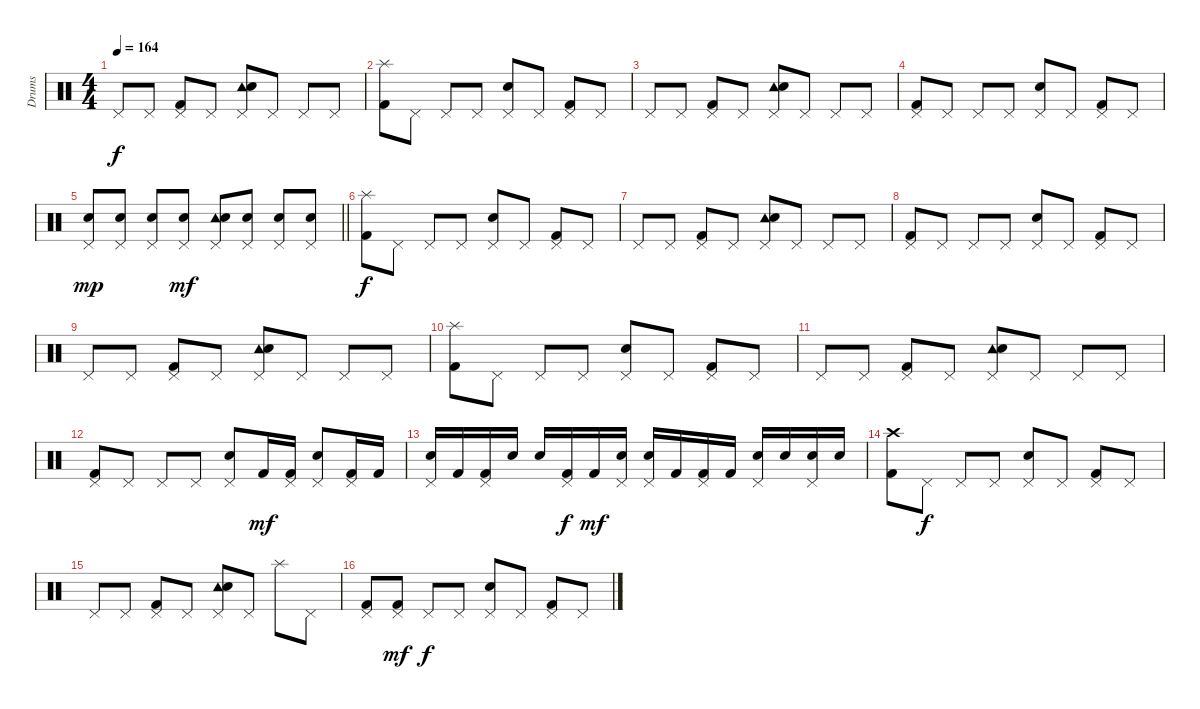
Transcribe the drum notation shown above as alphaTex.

\track ("Drums" "Drums") {instrument percussion}
\staff {score}
\articulation defaults
\ts (4 4)
\tempo 164
\clef neutral
\ks c "Pedal Hi-Hat (hit)".8{dy f} "Pedal Hi-Hat (hit)".8
("Pedal Hi-Hat (hit)" "Kick (hit) 2").8 "Pedal Hi-Hat (hit)".8 ("Tambourine (hit)" "Pedal Hi-Hat (hit)" "Snare (hit) 2").8 "Pedal Hi-Hat (hit)".8 "Pedal Hi-Hat (hit)".8 "Pedal Hi-Hat (hit)".8 |
("Splash (hit)" "Kick (hit) 2").8 "Pedal Hi-Hat (hit)".8 "Pedal Hi-Hat (hit)".8 "Pedal Hi-Hat (hit)".8 ("Pedal Hi-Hat (hit)" "Snare (hit) 2").8 "Pedal Hi-Hat (hit)".8 ("Pedal Hi-Hat (hit)" "Kick (hit) 2").8 "Pedal Hi-Hat (hit)".8 |
"Pedal Hi-Hat (hit)".8 "Pedal Hi-Hat (hit)".8 ("Pedal Hi-Hat (hit)" "Kick (hit) 2").8 "Pedal Hi-Hat (hit)".8 ("Tambourine (hit)" "Pedal Hi-Hat (hit)" "Snare (hit) 2").8 "Pedal Hi-Hat (hit)".8 "Pedal Hi-Hat (hit)".8 "Pedal Hi-Hat (hit)".8 |
("Pedal Hi-Hat (hit)" "Kick (hit) 2").8 "Pedal Hi-Hat (hit)".8 "Pedal Hi-Hat (hit)".8 "Pedal Hi-Hat (hit)".8 ("Pedal Hi-Hat (hit)" "Snare (hit) 2").8 "Pedal Hi-Hat (hit)".8 ("Pedal Hi-Hat (hit)" "Kick (hit) 2").8 "Pedal Hi-Hat (hit)".8 |
\barLineRight lightlight
("Pedal Hi-Hat (hit)" "Snare (hit) 2").8{dy mp} ("Pedal Hi-Hat (hit)" "Snare (hit) 2").8 ("Pedal Hi-Hat (hit)" "Snare (hit) 2").8 ("Pedal Hi-Hat (hit)" "Snare (hit) 2").8{dy mf} ("Tambourine (hit)" "Pedal Hi-Hat (hit)" "Snare (hit) 2").8 ("Pedal Hi-Hat (hit)" "Snare (hit) 2").8 ("Pedal Hi-Hat (hit)" "Snare (hit) 2").8 ("Pedal Hi-Hat (hit)" "Snare (hit) 2").8 |
("Splash (hit)" "Kick (hit) 2").8{dy f} "Pedal Hi-Hat (hit)".8 "Pedal Hi-Hat (hit)".8 "Pedal Hi-Hat (hit)".8 ("Pedal Hi-Hat (hit)" "Snare (hit) 2").8 "Pedal Hi-Hat (hit)".8 ("Pedal Hi-Hat (hit)" "Kick (hit) 2").8 "Pedal Hi-Hat (hit)".8 |
"Pedal Hi-Hat (hit)".8 "Pedal Hi-Hat (hit)".8 ("Pedal Hi-Hat (hit)" "Kick (hit) 2").8 "Pedal Hi-Hat (hit)".8 ("Tambourine (hit)" "Pedal Hi-Hat (hit)" "Snare (hit) 2").8 "Pedal Hi-Hat (hit)".8 "Pedal Hi-Hat (hit)".8 "Pedal Hi-Hat (hit)".8 |
("Pedal Hi-Hat (hit)" "Kick (hit) 2").8 "Pedal Hi-Hat (hit)".8 "Pedal Hi-Hat (hit)".8 "Pedal Hi-Hat (hit)".8 ("Pedal Hi-Hat (hit)" "Snare (hit) 2").8 "Pedal Hi-Hat (hit)".8 ("Pedal Hi-Hat (hit)" "Kick (hit) 2").8 "Pedal Hi-Hat (hit)".8 |
"Pedal Hi-Hat (hit)".8 "Pedal Hi-Hat (hit)".8 ("Pedal Hi-Hat (hit)" "Kick (hit) 2").8 "Pedal Hi-Hat (hit)".8 ("Tambourine (hit)" "Pedal Hi-Hat (hit)" "Snare (hit) 2").8 "Pedal Hi-Hat (hit)".8 "Pedal Hi-Hat (hit)".8 "Pedal Hi-Hat (hit)".8 |
("Splash (hit)" "Kick (hit) 2").8 "Pedal Hi-Hat (hit)".8 "Pedal Hi-Hat (hit)".8 "Pedal Hi-Hat (hit)".8 ("Pedal Hi-Hat (hit)" "Snare (hit) 2").8 "Pedal Hi-Hat (hit)".8 ("Pedal Hi-Hat (hit)" "Kick (hit) 2").8 "Pedal Hi-Hat (hit)".8 |
"Pedal Hi-Hat (hit)".8 "Pedal Hi-Hat (hit)".8 ("Pedal Hi-Hat (hit)" "Kick (hit) 2").8 "Pedal Hi-Hat (hit)".8 ("Tambourine (hit)" "Pedal Hi-Hat (hit)" "Snare (hit) 2").8 "Pedal Hi-Hat (hit)".8 "Pedal Hi-Hat (hit)".8 "Pedal Hi-Hat (hit)".8 |
("Pedal Hi-Hat (hit)" "Kick (hit) 2").8 "Pedal Hi-Hat (hit)".8 "Pedal Hi-Hat (hit)".8 "Pedal Hi-Hat (hit)".8 ("Pedal Hi-Hat (hit)" "Snare (hit) 2").8 "Kick (hit) 2".16{dy mf} ("Pedal Hi-Hat (hit)" "Kick (hit) 2").16 ("Pedal Hi-Hat (hit)" "Snare (hit) 2").8 ("Pedal Hi-Hat (hit)" "Kick (hit) 2").16 "Kick (hit) 2".16 |
("Pedal Hi-Hat (hit)" "Snare (hit) 2").16 "Kick (hit) 2".16 ("Pedal Hi-Hat (hit)" "Kick (hit) 2").16 "Snare (hit) 2".16 "Snare (hit) 2".16 ("Pedal Hi-Hat (hit)" "Kick (hit) 2").16{dy f} "Kick (hit) 2".16{dy mf} ("Pedal Hi-Hat (hit)" "Snare (hit) 2").16 ("Pedal Hi-Hat (hit)" "Snare (hit) 2").16 "Kick (hit) 2".16 ("Pedal Hi-Hat (hit)" "Kick (hit) 2").16 "Kick (hit) 2".16 ("Pedal Hi-Hat (hit)" "Snare (hit) 2").16 "Snare (hit) 2".16 ("Pedal Hi-Hat (hit)" "Snare (hit) 2").16 "Snare (hit) 2".16 |
("Crash high (hit)" "Kick (hit) 2").8 "Pedal Hi-Hat (hit)".8{dy f} "Pedal Hi-Hat (hit)".8 "Pedal Hi-Hat (hit)".8 ("Pedal Hi-Hat (hit)" "Snare (hit) 2").8 "Pedal Hi-Hat (hit)".8 ("Pedal Hi-Hat (hit)" "Kick (hit) 2").8 "Pedal Hi-Hat (hit)".8 |
"Pedal Hi-Hat (hit)".8 "Pedal Hi-Hat (hit)".8 ("Pedal Hi-Hat (hit)" "Kick (hit) 2").8 "Pedal Hi-Hat (hit)".8 ("Tambourine (hit)" "Pedal Hi-Hat (hit)" "Snare (hit) 2").8 "Pedal Hi-Hat (hit)".8 "Splash (hit)".8 "Pedal Hi-Hat (hit)".8 |
("Pedal Hi-Hat (hit)" "Kick (hit) 2").8 ("Pedal Hi-Hat (hit)" "Kick (hit) 2").8{dy mf} "Pedal Hi-Hat (hit)".8{dy f} "Pedal Hi-Hat (hit)".8 ("Pedal Hi-Hat (hit)" "Snare (hit) 2").8 "Pedal Hi-Hat (hit)".8 ("Pedal Hi-Hat (hit)" "Kick (hit) 2").8 "Pedal Hi-Hat (hit)".8
